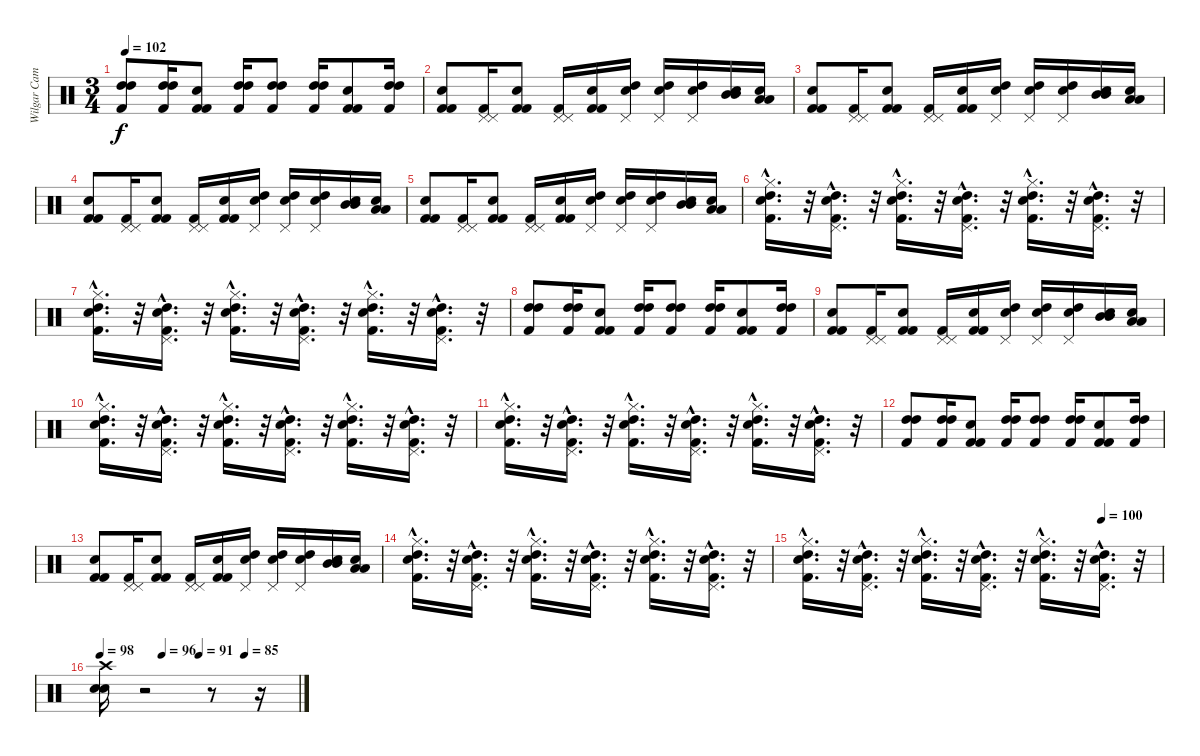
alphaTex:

\track ("Wilgar Campbell" "Wilgar Cam") {instrument percussion}
\staff {score}
\articulation defaults
\ts (3 4)
\tempo 102
\clef neutral
\ks c
("High Tom (hit)" "High Tom (hit)" "Kick (hit) 2").8{dy f} ("High Tom (hit)" "High Tom (hit)" "Kick (hit) 2").16 ("Snare (hit) 2" "Kick (hit) 2" "Kick (hit) 2").8 ("High Tom (hit)" "High Tom (hit)" "Kick (hit) 2").16 ("High Tom (hit)" "High Tom (hit)" "Kick (hit) 2").8 ("High Tom (hit)" "High Tom (hit)" "Kick (hit) 2").16 ("Snare (hit) 2" "Kick (hit) 2" "Kick (hit) 2").8 ("High Tom (hit)" "High Tom (hit)" "Kick (hit) 2").16 |
("Electric Snare (hit)" "Kick (hit) 2" "Kick (hit) 2").8 ("Pedal Hi-Hat (hit)" "Pedal Hi-Hat (hit)" "Kick (hit) 2").16 ("Snare (hit) 2" "Kick (hit) 2" "Kick (hit) 2").8 ("Pedal Hi-Hat (hit)" "Pedal Hi-Hat (hit)" "Kick (hit) 2").16 ("Snare (hit) 2" "Kick (hit) 2" "Kick (hit) 2").16 ("Electric Snare (hit)" "Pedal Hi-Hat (hit)" "High Tom (hit)").16 ("Electric Snare (hit)" "Pedal Hi-Hat (hit)" "High Tom (hit)").16 ("Electric Snare (hit)" "Pedal Hi-Hat (hit)" "High Tom (hit)").16 ("Electric Snare (hit)" "Mid Tom (hit)" "Mid Tom (hit)").16 ("Electric Snare (hit)" "Low Tom (hit)" "Low Tom (hit)").16 |
("Electric Snare (hit)" "Kick (hit) 2" "Kick (hit) 2").8 ("Pedal Hi-Hat (hit)" "Pedal Hi-Hat (hit)" "Kick (hit) 2").16 ("Snare (hit) 2" "Kick (hit) 2" "Kick (hit) 2").8 ("Pedal Hi-Hat (hit)" "Pedal Hi-Hat (hit)" "Kick (hit) 2").16 ("Snare (hit) 2" "Kick (hit) 2" "Kick (hit) 2").16 ("Electric Snare (hit)" "Pedal Hi-Hat (hit)" "High Tom (hit)").16 ("Electric Snare (hit)" "Pedal Hi-Hat (hit)" "High Tom (hit)").16 ("Electric Snare (hit)" "Pedal Hi-Hat (hit)" "High Tom (hit)").16 ("Electric Snare (hit)" "Mid Tom (hit)" "Mid Tom (hit)").16 ("Electric Snare (hit)" "Low Tom (hit)" "Low Tom (hit)").16 |
("Electric Snare (hit)" "Kick (hit) 2" "Kick (hit) 2").8 ("Pedal Hi-Hat (hit)" "Pedal Hi-Hat (hit)" "Kick (hit) 2").16 ("Snare (hit) 2" "Kick (hit) 2" "Kick (hit) 2").8 ("Pedal Hi-Hat (hit)" "Pedal Hi-Hat (hit)" "Kick (hit) 2").16 ("Snare (hit) 2" "Kick (hit) 2" "Kick (hit) 2").16 ("Electric Snare (hit)" "Pedal Hi-Hat (hit)" "High Tom (hit)").16 ("Electric Snare (hit)" "Pedal Hi-Hat (hit)" "High Tom (hit)").16 ("Electric Snare (hit)" "Pedal Hi-Hat (hit)" "High Tom (hit)").16 ("Electric Snare (hit)" "Mid Tom (hit)" "Mid Tom (hit)").16 ("Electric Snare (hit)" "Low Tom (hit)" "Low Tom (hit)").16 |
("Electric Snare (hit)" "Kick (hit) 2" "Kick (hit) 2").8 ("Pedal Hi-Hat (hit)" "Pedal Hi-Hat (hit)" "Kick (hit) 2").16 ("Snare (hit) 2" "Kick (hit) 2" "Kick (hit) 2").8 ("Pedal Hi-Hat (hit)" "Pedal Hi-Hat (hit)" "Kick (hit) 2").16 ("Snare (hit) 2" "Kick (hit) 2" "Kick (hit) 2").16 ("Electric Snare (hit)" "Pedal Hi-Hat (hit)" "High Tom (hit)").16 ("Electric Snare (hit)" "Pedal Hi-Hat (hit)" "High Tom (hit)").16 ("Electric Snare (hit)" "Pedal Hi-Hat (hit)" "High Tom (hit)").16 ("Electric Snare (hit)" "Mid Tom (hit)" "Mid Tom (hit)").16 ("Electric Snare (hit)" "Low Tom (hit)" "Low Tom (hit)").16 |
("Hi-Hat (closed)"{hac} "Snare (hit) 2"{hac} "High Tom (hit)"{hac} "Kick (hit) 2"{hac}).16{d} r.32 ("Pedal Hi-Hat (hit)"{hac} "Snare (hit) 2"{hac} "High Tom (hit)"{hac} "Kick (hit) 2"{hac}).16{d} r.32 ("Hi-Hat (closed)"{hac} "Snare (hit) 2"{hac} "High Tom (hit)"{hac} "Kick (hit) 2"{hac}).16{d} r.32 ("Pedal Hi-Hat (hit)"{hac} "Snare (hit) 2"{hac} "High Tom (hit)"{hac} "Kick (hit) 2"{hac}).16{d} r.32 ("Hi-Hat (closed)"{hac} "Snare (hit) 2"{hac} "High Tom (hit)"{hac} "Kick (hit) 2"{hac}).16{d} r.32 ("Pedal Hi-Hat (hit)"{hac} "Snare (hit) 2"{hac} "High Tom (hit)"{hac} "Kick (hit) 2"{hac}).16{d} r.32 |
("Hi-Hat (closed)"{hac} "Snare (hit) 2"{hac} "High Tom (hit)"{hac} "Kick (hit) 2"{hac}).16{d} r.32 ("Pedal Hi-Hat (hit)"{hac} "Snare (hit) 2"{hac} "High Tom (hit)"{hac} "Kick (hit) 2"{hac}).16{d} r.32 ("Hi-Hat (closed)"{hac} "Snare (hit) 2"{hac} "High Tom (hit)"{hac} "Kick (hit) 2"{hac}).16{d} r.32 ("Pedal Hi-Hat (hit)"{hac} "Snare (hit) 2"{hac} "High Tom (hit)"{hac} "Kick (hit) 2"{hac}).16{d} r.32 ("Hi-Hat (closed)"{hac} "Snare (hit) 2"{hac} "High Tom (hit)"{hac} "Kick (hit) 2"{hac}).16{d} r.32 ("Pedal Hi-Hat (hit)"{hac} "Snare (hit) 2"{hac} "High Tom (hit)"{hac} "Kick (hit) 2"{hac}).16{d} r.32 |
("High Tom (hit)" "High Tom (hit)" "Kick (hit) 2").8 ("High Tom (hit)" "High Tom (hit)" "Kick (hit) 2").16 ("Snare (hit) 2" "Kick (hit) 2" "Kick (hit) 2").8 ("High Tom (hit)" "High Tom (hit)" "Kick (hit) 2").16 ("High Tom (hit)" "High Tom (hit)" "Kick (hit) 2").8 ("High Tom (hit)" "High Tom (hit)" "Kick (hit) 2").16 ("Snare (hit) 2" "Kick (hit) 2" "Kick (hit) 2").8 ("High Tom (hit)" "High Tom (hit)" "Kick (hit) 2").16 |
("Electric Snare (hit)" "Kick (hit) 2" "Kick (hit) 2").8 ("Pedal Hi-Hat (hit)" "Pedal Hi-Hat (hit)" "Kick (hit) 2").16 ("Snare (hit) 2" "Kick (hit) 2" "Kick (hit) 2").8 ("Pedal Hi-Hat (hit)" "Pedal Hi-Hat (hit)" "Kick (hit) 2").16 ("Snare (hit) 2" "Kick (hit) 2" "Kick (hit) 2").16 ("Electric Snare (hit)" "Pedal Hi-Hat (hit)" "High Tom (hit)").16 ("Electric Snare (hit)" "Pedal Hi-Hat (hit)" "High Tom (hit)").16 ("Electric Snare (hit)" "Pedal Hi-Hat (hit)" "High Tom (hit)").16 ("Electric Snare (hit)" "Mid Tom (hit)" "Mid Tom (hit)").16 ("Electric Snare (hit)" "Low Tom (hit)" "Low Tom (hit)").16 |
("Hi-Hat (closed)"{hac} "Snare (hit) 2"{hac} "High Tom (hit)"{hac} "Kick (hit) 2"{hac}).16{d} r.32 ("Pedal Hi-Hat (hit)"{hac} "Snare (hit) 2"{hac} "High Tom (hit)"{hac} "Kick (hit) 2"{hac}).16{d} r.32 ("Hi-Hat (closed)"{hac} "Snare (hit) 2"{hac} "High Tom (hit)"{hac} "Kick (hit) 2"{hac}).16{d} r.32 ("Pedal Hi-Hat (hit)"{hac} "Snare (hit) 2"{hac} "High Tom (hit)"{hac} "Kick (hit) 2"{hac}).16{d} r.32 ("Hi-Hat (closed)"{hac} "Snare (hit) 2"{hac} "High Tom (hit)"{hac} "Kick (hit) 2"{hac}).16{d} r.32 ("Pedal Hi-Hat (hit)"{hac} "Snare (hit) 2"{hac} "High Tom (hit)"{hac} "Kick (hit) 2"{hac}).16{d} r.32 |
("Hi-Hat (closed)"{hac} "Snare (hit) 2"{hac} "High Tom (hit)"{hac} "Kick (hit) 2"{hac}).16{d} r.32 ("Pedal Hi-Hat (hit)"{hac} "Snare (hit) 2"{hac} "High Tom (hit)"{hac} "Kick (hit) 2"{hac}).16{d} r.32 ("Hi-Hat (closed)"{hac} "Snare (hit) 2"{hac} "High Tom (hit)"{hac} "Kick (hit) 2"{hac}).16{d} r.32 ("Pedal Hi-Hat (hit)"{hac} "Snare (hit) 2"{hac} "High Tom (hit)"{hac} "Kick (hit) 2"{hac}).16{d} r.32 ("Hi-Hat (closed)"{hac} "Snare (hit) 2"{hac} "High Tom (hit)"{hac} "Kick (hit) 2"{hac}).16{d} r.32 ("Pedal Hi-Hat (hit)"{hac} "Snare (hit) 2"{hac} "High Tom (hit)"{hac} "Kick (hit) 2"{hac}).16{d} r.32 |
("High Tom (hit)" "High Tom (hit)" "Kick (hit) 2").8 ("High Tom (hit)" "High Tom (hit)" "Kick (hit) 2").16 ("Snare (hit) 2" "Kick (hit) 2" "Kick (hit) 2").8 ("High Tom (hit)" "High Tom (hit)" "Kick (hit) 2").16 ("High Tom (hit)" "High Tom (hit)" "Kick (hit) 2").8 ("High Tom (hit)" "High Tom (hit)" "Kick (hit) 2").16 ("Snare (hit) 2" "Kick (hit) 2" "Kick (hit) 2").8 ("High Tom (hit)" "High Tom (hit)" "Kick (hit) 2").16 |
("Electric Snare (hit)" "Kick (hit) 2" "Kick (hit) 2").8 ("Pedal Hi-Hat (hit)" "Pedal Hi-Hat (hit)" "Kick (hit) 2").16 ("Snare (hit) 2" "Kick (hit) 2" "Kick (hit) 2").8 ("Pedal Hi-Hat (hit)" "Pedal Hi-Hat (hit)" "Kick (hit) 2").16 ("Snare (hit) 2" "Kick (hit) 2" "Kick (hit) 2").16 ("Electric Snare (hit)" "Pedal Hi-Hat (hit)" "High Tom (hit)").16 ("Electric Snare (hit)" "Pedal Hi-Hat (hit)" "High Tom (hit)").16 ("Electric Snare (hit)" "Pedal Hi-Hat (hit)" "High Tom (hit)").16 ("Electric Snare (hit)" "Mid Tom (hit)" "Mid Tom (hit)").16 ("Electric Snare (hit)" "Low Tom (hit)" "Low Tom (hit)").16 |
("Hi-Hat (closed)"{hac} "Snare (hit) 2"{hac} "High Tom (hit)"{hac} "Kick (hit) 2"{hac}).16{d} r.32 ("Pedal Hi-Hat (hit)"{hac} "Snare (hit) 2"{hac} "High Tom (hit)"{hac} "Kick (hit) 2"{hac}).16{d} r.32 ("Hi-Hat (closed)"{hac} "Snare (hit) 2"{hac} "High Tom (hit)"{hac} "Kick (hit) 2"{hac}).16{d} r.32 ("Pedal Hi-Hat (hit)"{hac} "Snare (hit) 2"{hac} "High Tom (hit)"{hac} "Kick (hit) 2"{hac}).16{d} r.32 ("Hi-Hat (closed)"{hac} "Snare (hit) 2"{hac} "High Tom (hit)"{hac} "Kick (hit) 2"{hac}).16{d} r.32 ("Pedal Hi-Hat (hit)"{hac} "Snare (hit) 2"{hac} "High Tom (hit)"{hac} "Kick (hit) 2"{hac}).16{d} r.32 |
\tempo (100 0.8333333333333334)
("Hi-Hat (closed)"{hac} "Snare (hit) 2"{hac} "High Tom (hit)"{hac} "Kick (hit) 2"{hac}).16{d} r.32 ("Pedal Hi-Hat (hit)"{hac} "Snare (hit) 2"{hac} "High Tom (hit)"{hac} "Kick (hit) 2"{hac}).16{d} r.32 ("Hi-Hat (closed)"{hac} "Snare (hit) 2"{hac} "High Tom (hit)"{hac} "Kick (hit) 2"{hac}).16{d} r.32 ("Pedal Hi-Hat (hit)"{hac} "Snare (hit) 2"{hac} "High Tom (hit)"{hac} "Kick (hit) 2"{hac}).16{d} r.32 ("Hi-Hat (closed)"{hac} "Snare (hit) 2"{hac} "High Tom (hit)"{hac} "Kick (hit) 2"{hac}).16{d} r.32 ("Pedal Hi-Hat (hit)"{hac} "Snare (hit) 2"{hac} "High Tom (hit)"{hac} "Kick (hit) 2"{hac}).16{d} r.32 |
\tempo 98
\tempo (96 0.3125)
\tempo (91 0.5)
\tempo (85 0.7291666666666666)
("Crash high (hit)" "Snare (hit) 2" "Electric Snare (hit)").16 r.2 r.8 r.16
